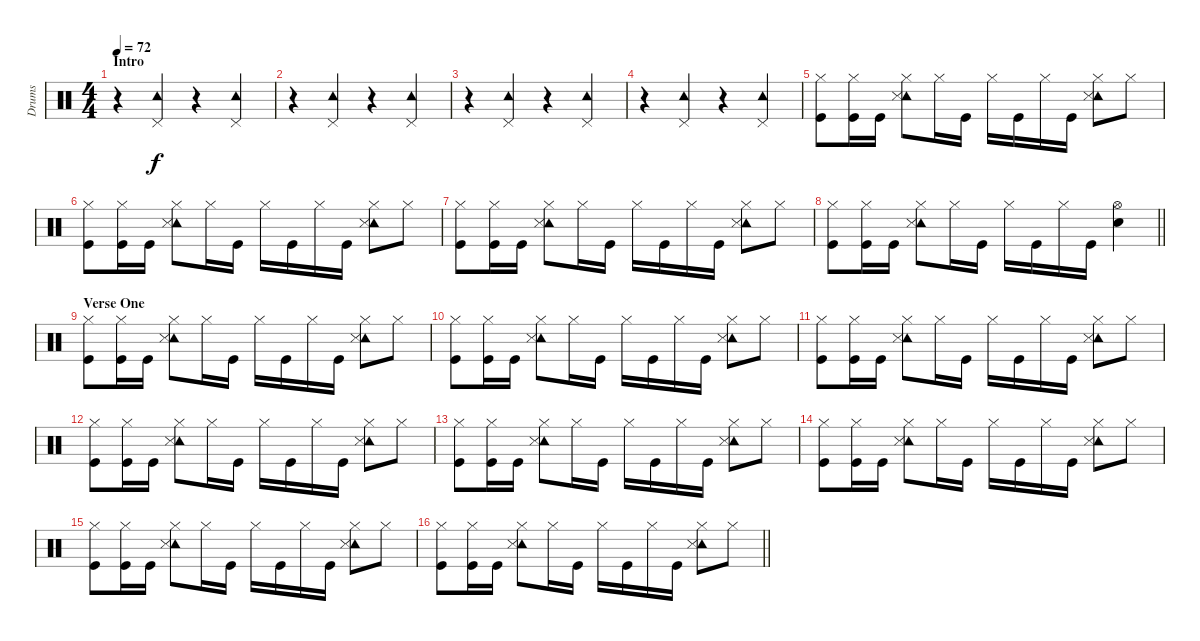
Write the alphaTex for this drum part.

\track ("Drums" "Drums") {instrument percussion}
\staff {score}
\articulation defaults
\ts (4 4)
\section ("" "Intro")
\tempo 72
\clef neutral
\ks c
r.4{dy f} ("Tambourine (hit)" "Pedal Hi-Hat (hit)").4 r.4 ("Tambourine (hit)" "Pedal Hi-Hat (hit)").4 |
r.4 ("Tambourine (hit)" "Pedal Hi-Hat (hit)").4 r.4 ("Tambourine (hit)" "Pedal Hi-Hat (hit)").4 |
r.4 ("Tambourine (hit)" "Pedal Hi-Hat (hit)").4 r.4 ("Tambourine (hit)" "Pedal Hi-Hat (hit)").4 |
r.4 ("Tambourine (hit)" "Pedal Hi-Hat (hit)").4 r.4 ("Tambourine (hit)" "Pedal Hi-Hat (hit)").4 |
("Hi-Hat (closed)" "Kick (hit)").8 ("Hi-Hat (closed)" "Kick (hit)").16 "Kick (hit)".16 ("Tambourine (hit)" "Hi-Hat (closed)" "Snare (side stick) 3").8 "Hi-Hat (closed)".16 "Kick (hit)".16 "Hi-Hat (closed)".16 "Kick (hit)".16 "Hi-Hat (closed)".16 "Kick (hit)".16 ("Tambourine (hit)" "Hi-Hat (closed)" "Snare (side stick) 3").8 "Hi-Hat (closed)".8 |
("Hi-Hat (closed)" "Kick (hit)").8 ("Hi-Hat (closed)" "Kick (hit)").16 "Kick (hit)".16 ("Tambourine (hit)" "Hi-Hat (closed)" "Snare (side stick) 3").8 "Hi-Hat (closed)".16 "Kick (hit)".16 "Hi-Hat (closed)".16 "Kick (hit)".16 "Hi-Hat (closed)".16 "Kick (hit)".16 ("Tambourine (hit)" "Hi-Hat (closed)" "Snare (side stick) 3").8 "Hi-Hat (closed)".8 |
("Hi-Hat (closed)" "Kick (hit)").8 ("Hi-Hat (closed)" "Kick (hit)").16 "Kick (hit)".16 ("Tambourine (hit)" "Hi-Hat (closed)" "Snare (side stick) 3").8 "Hi-Hat (closed)".16 "Kick (hit)".16 "Hi-Hat (closed)".16 "Kick (hit)".16 "Hi-Hat (closed)".16 "Kick (hit)".16 ("Tambourine (hit)" "Hi-Hat (closed)" "Snare (side stick) 3").8 "Hi-Hat (closed)".8 |
\barLineRight lightlight
("Hi-Hat (closed)" "Kick (hit)").8 ("Hi-Hat (closed)" "Kick (hit)").16 "Kick (hit)".16 ("Tambourine (hit)" "Hi-Hat (closed)" "Snare (side stick) 3").8 "Hi-Hat (closed)".16 "Kick (hit)".16 "Hi-Hat (closed)".16 "Kick (hit)".16 "Hi-Hat (closed)".16 "Kick (hit)".16 ("Hi-Hat (open)" "Snare (hit) 2").4 |
\section ("" "Verse One")
("Hi-Hat (closed)" "Kick (hit)").8 ("Hi-Hat (closed)" "Kick (hit)").16 "Kick (hit)".16 ("Tambourine (hit)" "Hi-Hat (closed)" "Snare (side stick) 3").8 "Hi-Hat (closed)".16 "Kick (hit)".16 "Hi-Hat (closed)".16 "Kick (hit)".16 "Hi-Hat (closed)".16 "Kick (hit)".16 ("Tambourine (hit)" "Hi-Hat (closed)" "Snare (side stick) 3").8 "Hi-Hat (closed)".8 |
("Hi-Hat (closed)" "Kick (hit)").8 ("Hi-Hat (closed)" "Kick (hit)").16 "Kick (hit)".16 ("Tambourine (hit)" "Hi-Hat (closed)" "Snare (side stick) 3").8 "Hi-Hat (closed)".16 "Kick (hit)".16 "Hi-Hat (closed)".16 "Kick (hit)".16 "Hi-Hat (closed)".16 "Kick (hit)".16 ("Tambourine (hit)" "Hi-Hat (closed)" "Snare (side stick) 3").8 "Hi-Hat (closed)".8 |
("Hi-Hat (closed)" "Kick (hit)").8 ("Hi-Hat (closed)" "Kick (hit)").16 "Kick (hit)".16 ("Tambourine (hit)" "Hi-Hat (closed)" "Snare (side stick) 3").8 "Hi-Hat (closed)".16 "Kick (hit)".16 "Hi-Hat (closed)".16 "Kick (hit)".16 "Hi-Hat (closed)".16 "Kick (hit)".16 ("Tambourine (hit)" "Hi-Hat (closed)" "Snare (side stick) 3").8 "Hi-Hat (closed)".8 |
("Hi-Hat (closed)" "Kick (hit)").8 ("Hi-Hat (closed)" "Kick (hit)").16 "Kick (hit)".16 ("Tambourine (hit)" "Hi-Hat (closed)" "Snare (side stick) 3").8 "Hi-Hat (closed)".16 "Kick (hit)".16 "Hi-Hat (closed)".16 "Kick (hit)".16 "Hi-Hat (closed)".16 "Kick (hit)".16 ("Tambourine (hit)" "Hi-Hat (closed)" "Snare (side stick) 3").8 "Hi-Hat (closed)".8 |
("Hi-Hat (closed)" "Kick (hit)").8 ("Hi-Hat (closed)" "Kick (hit)").16 "Kick (hit)".16 ("Tambourine (hit)" "Hi-Hat (closed)" "Snare (side stick) 3").8 "Hi-Hat (closed)".16 "Kick (hit)".16 "Hi-Hat (closed)".16 "Kick (hit)".16 "Hi-Hat (closed)".16 "Kick (hit)".16 ("Tambourine (hit)" "Hi-Hat (closed)" "Snare (side stick) 3").8 "Hi-Hat (closed)".8 |
("Hi-Hat (closed)" "Kick (hit)").8 ("Hi-Hat (closed)" "Kick (hit)").16 "Kick (hit)".16 ("Tambourine (hit)" "Hi-Hat (closed)" "Snare (side stick) 3").8 "Hi-Hat (closed)".16 "Kick (hit)".16 "Hi-Hat (closed)".16 "Kick (hit)".16 "Hi-Hat (closed)".16 "Kick (hit)".16 ("Tambourine (hit)" "Hi-Hat (closed)" "Snare (side stick) 3").8 "Hi-Hat (closed)".8 |
("Hi-Hat (closed)" "Kick (hit)").8 ("Hi-Hat (closed)" "Kick (hit)").16 "Kick (hit)".16 ("Tambourine (hit)" "Hi-Hat (closed)" "Snare (side stick) 3").8 "Hi-Hat (closed)".16 "Kick (hit)".16 "Hi-Hat (closed)".16 "Kick (hit)".16 "Hi-Hat (closed)".16 "Kick (hit)".16 ("Tambourine (hit)" "Hi-Hat (closed)" "Snare (side stick) 3").8 "Hi-Hat (closed)".8 |
\barLineRight lightlight
("Hi-Hat (closed)" "Kick (hit)").8 ("Hi-Hat (closed)" "Kick (hit)").16 "Kick (hit)".16 ("Tambourine (hit)" "Hi-Hat (closed)" "Snare (side stick) 3").8 "Hi-Hat (closed)".16 "Kick (hit)".16 "Hi-Hat (closed)".16 "Kick (hit)".16 "Hi-Hat (closed)".16 "Kick (hit)".16 ("Tambourine (hit)" "Hi-Hat (closed)" "Snare (side stick) 3").8 "Hi-Hat (closed)".8
